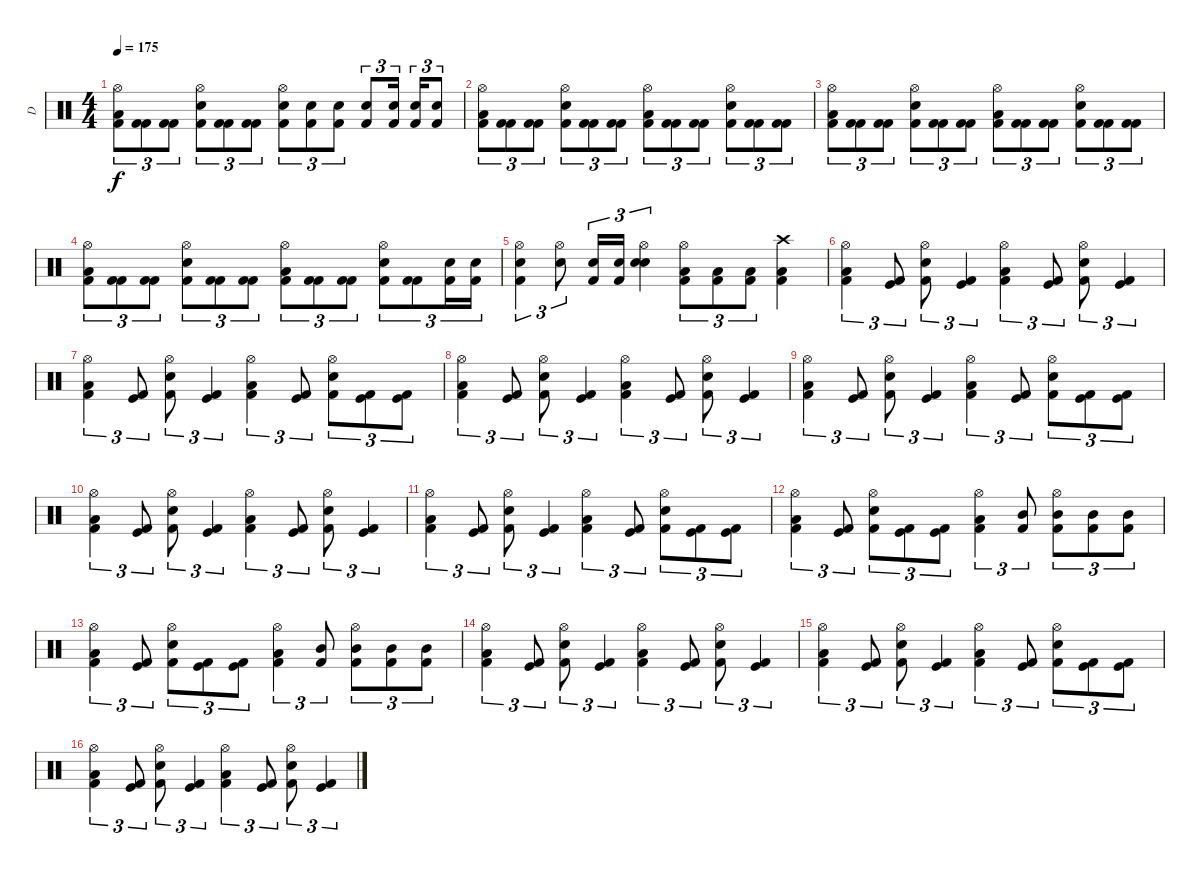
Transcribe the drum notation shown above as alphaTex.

\track ("D" "D") {instrument percussion}
\staff {score}
\articulation defaults
\ts (4 4)
\tempo 175
\clef neutral
\ks c
("Hi-Hat (open)" "Low Floor Tom (hit)" "Kick (hit) 2").8{tu (3 2) dy f} ("Kick (hit) 2" "Kick (hit) 2").8{tu (3 2)} ("Kick (hit) 2" "Kick (hit) 2").8{tu (3 2)} ("Hi-Hat (open)" "Electric Snare (hit)" "Kick (hit) 2").8{tu (3 2)} ("Kick (hit) 2" "Kick (hit) 2").8{tu (3 2)} ("Kick (hit) 2" "Kick (hit) 2").8{tu (3 2)} ("Hi-Hat (open)" "Snare (hit) 2" "Kick (hit) 2").8{tu (3 2)} ("Snare (hit) 2" "Kick (hit) 2").8{tu (3 2)} ("Snare (hit) 2" "Kick (hit) 2").8{tu (3 2)} ("Snare (hit) 2" "Kick (hit) 2").8{tu (3 2)} ("Snare (hit) 2" "Kick (hit) 2").16{tu (3 2)} ("Snare (hit) 2" "Kick (hit) 2").16{tu (3 2)} ("Snare (hit) 2" "Kick (hit) 2").8{tu (3 2)} |
("Hi-Hat (open)" "Low Floor Tom (hit)" "Kick (hit) 2").8{tu (3 2)} ("Kick (hit) 2" "Kick (hit) 2").8{tu (3 2)} ("Kick (hit) 2" "Kick (hit) 2").8{tu (3 2)} ("Hi-Hat (open)" "Electric Snare (hit)" "Kick (hit) 2").8{tu (3 2)} ("Kick (hit) 2" "Kick (hit) 2").8{tu (3 2)} ("Kick (hit) 2" "Kick (hit) 2").8{tu (3 2)} ("Hi-Hat (open)" "Low Floor Tom (hit)" "Kick (hit) 2").8{tu (3 2)} ("Kick (hit) 2" "Kick (hit) 2").8{tu (3 2)} ("Kick (hit) 2" "Kick (hit) 2").8{tu (3 2)} ("Hi-Hat (open)" "Snare (hit) 2" "Kick (hit) 2").8{tu (3 2)} ("Kick (hit) 2" "Kick (hit) 2").8{tu (3 2)} ("Kick (hit) 2" "Kick (hit) 2").8{tu (3 2)} |
("Hi-Hat (open)" "Low Floor Tom (hit)" "Kick (hit) 2").8{tu (3 2)} ("Kick (hit) 2" "Kick (hit) 2").8{tu (3 2)} ("Kick (hit) 2" "Kick (hit) 2").8{tu (3 2)} ("Hi-Hat (open)" "Electric Snare (hit)" "Kick (hit) 2").8{tu (3 2)} ("Kick (hit) 2" "Kick (hit) 2").8{tu (3 2)} ("Kick (hit) 2" "Kick (hit) 2").8{tu (3 2)} ("Hi-Hat (open)" "Low Floor Tom (hit)" "Kick (hit) 2").8{tu (3 2)} ("Kick (hit) 2" "Kick (hit) 2").8{tu (3 2)} ("Kick (hit) 2" "Kick (hit) 2").8{tu (3 2)} ("Hi-Hat (open)" "Snare (hit) 2" "Kick (hit) 2").8{tu (3 2)} ("Kick (hit) 2" "Kick (hit) 2").8{tu (3 2)} ("Kick (hit) 2" "Kick (hit) 2").8{tu (3 2)} |
("Hi-Hat (open)" "Low Floor Tom (hit)" "Kick (hit) 2").8{tu (3 2)} ("Kick (hit) 2" "Kick (hit) 2").8{tu (3 2)} ("Kick (hit) 2" "Kick (hit) 2").8{tu (3 2)} ("Hi-Hat (open)" "Electric Snare (hit)" "Kick (hit) 2").8{tu (3 2)} ("Kick (hit) 2" "Kick (hit) 2").8{tu (3 2)} ("Kick (hit) 2" "Kick (hit) 2").8{tu (3 2)} ("Hi-Hat (open)" "Low Floor Tom (hit)" "Kick (hit) 2").8{tu (3 2)} ("Kick (hit) 2" "Kick (hit) 2").8{tu (3 2)} ("Kick (hit) 2" "Kick (hit) 2").8{tu (3 2)} ("Hi-Hat (open)" "Snare (hit) 2" "Kick (hit) 2").8{tu (3 2)} ("Kick (hit) 2" "Kick (hit) 2").8{tu (3 2)} ("Electric Snare (hit)" "Kick (hit) 2").16{tu (3 2)} ("Electric Snare (hit)" "Kick (hit) 2").16{tu (3 2)} |
("Hi-Hat (open)" "Electric Snare (hit)" "Kick (hit) 2").4{tu (3 2)} ("Hi-Hat (open)" "Electric Snare (hit)").8{tu (3 2)} ("Electric Snare (hit)" "Kick (hit) 2").16{tu (3 2)} ("Electric Snare (hit)" "Kick (hit) 2").16{tu (3 2)} ("Hi-Hat (open)" "Electric Snare (hit)" "Snare (hit)").4{tu (3 2)} ("Hi-Hat (open)" "Low Tom (hit)" "Kick (hit) 2").8{tu (3 2)} ("Low Tom (hit)" "Kick (hit) 2").8{tu (3 2)} ("Low Tom (hit)" "Kick (hit) 2").8{tu (3 2)} ("Crash high (hit)" "Low Tom (hit)" "Kick (hit) 2").4 |
("Hi-Hat (open)" "Low Floor Tom (hit)" "Kick (hit) 2").4{tu (3 2)} ("Kick (hit)" "Kick (hit) 2").8{tu (3 2)} ("Hi-Hat (open)" "Electric Snare (hit)" "Kick (hit) 2").8{tu (3 2)} ("Kick (hit)" "Kick (hit) 2").4{tu (3 2)} ("Hi-Hat (open)" "Low Floor Tom (hit)" "Kick (hit) 2").4{tu (3 2)} ("Kick (hit)" "Kick (hit) 2").8{tu (3 2)} ("Hi-Hat (open)" "Electric Snare (hit)" "Kick (hit) 2").8{tu (3 2)} ("Kick (hit)" "Kick (hit) 2").4{tu (3 2)} |
("Hi-Hat (open)" "Low Floor Tom (hit)" "Kick (hit) 2").4{tu (3 2)} ("Kick (hit)" "Kick (hit) 2").8{tu (3 2)} ("Hi-Hat (open)" "Electric Snare (hit)" "Kick (hit) 2").8{tu (3 2)} ("Kick (hit)" "Kick (hit) 2").4{tu (3 2)} ("Hi-Hat (open)" "Low Floor Tom (hit)" "Kick (hit) 2").4{tu (3 2)} ("Kick (hit)" "Kick (hit) 2").8{tu (3 2)} ("Hi-Hat (open)" "Snare (hit) 2" "Kick (hit) 2").8{tu (3 2)} ("Kick (hit)" "Kick (hit) 2").8{tu (3 2)} ("Kick (hit)" "Kick (hit) 2").8{tu (3 2)} |
("Hi-Hat (open)" "Low Floor Tom (hit)" "Kick (hit) 2").4{tu (3 2)} ("Kick (hit)" "Kick (hit) 2").8{tu (3 2)} ("Hi-Hat (open)" "Electric Snare (hit)" "Kick (hit) 2").8{tu (3 2)} ("Kick (hit)" "Kick (hit) 2").4{tu (3 2)} ("Hi-Hat (open)" "Low Floor Tom (hit)" "Kick (hit) 2").4{tu (3 2)} ("Kick (hit)" "Kick (hit) 2").8{tu (3 2)} ("Hi-Hat (open)" "Electric Snare (hit)" "Kick (hit) 2").8{tu (3 2)} ("Kick (hit)" "Kick (hit) 2").4{tu (3 2)} |
("Hi-Hat (open)" "Low Floor Tom (hit)" "Kick (hit) 2").4{tu (3 2)} ("Kick (hit)" "Kick (hit) 2").8{tu (3 2)} ("Hi-Hat (open)" "Electric Snare (hit)" "Kick (hit) 2").8{tu (3 2)} ("Kick (hit)" "Kick (hit) 2").4{tu (3 2)} ("Hi-Hat (open)" "Low Floor Tom (hit)" "Kick (hit) 2").4{tu (3 2)} ("Kick (hit)" "Kick (hit) 2").8{tu (3 2)} ("Hi-Hat (open)" "Snare (hit) 2" "Kick (hit) 2").8{tu (3 2)} ("Kick (hit)" "Kick (hit) 2").8{tu (3 2)} ("Kick (hit)" "Kick (hit) 2").8{tu (3 2)} |
("Hi-Hat (open)" "Low Floor Tom (hit)" "Kick (hit) 2").4{tu (3 2)} ("Kick (hit)" "Kick (hit) 2").8{tu (3 2)} ("Hi-Hat (open)" "Electric Snare (hit)" "Kick (hit) 2").8{tu (3 2)} ("Kick (hit)" "Kick (hit) 2").4{tu (3 2)} ("Hi-Hat (open)" "Low Floor Tom (hit)" "Kick (hit) 2").4{tu (3 2)} ("Kick (hit)" "Kick (hit) 2").8{tu (3 2)} ("Hi-Hat (open)" "Electric Snare (hit)" "Kick (hit) 2").8{tu (3 2)} ("Kick (hit)" "Kick (hit) 2").4{tu (3 2)} |
("Hi-Hat (open)" "Low Floor Tom (hit)" "Kick (hit) 2").4{tu (3 2)} ("Kick (hit)" "Kick (hit) 2").8{tu (3 2)} ("Hi-Hat (open)" "Electric Snare (hit)" "Kick (hit) 2").8{tu (3 2)} ("Kick (hit)" "Kick (hit) 2").4{tu (3 2)} ("Hi-Hat (open)" "Low Floor Tom (hit)" "Kick (hit) 2").4{tu (3 2)} ("Kick (hit)" "Kick (hit) 2").8{tu (3 2)} ("Hi-Hat (open)" "Snare (hit) 2" "Kick (hit) 2").8{tu (3 2)} ("Kick (hit)" "Kick (hit) 2").8{tu (3 2)} ("Kick (hit)" "Kick (hit) 2").8{tu (3 2)} |
("Hi-Hat (open)" "Low Floor Tom (hit)" "Kick (hit) 2").4{tu (3 2)} ("Kick (hit)" "Kick (hit) 2").8{tu (3 2)} ("Hi-Hat (open)" "Electric Snare (hit)" "Kick (hit) 2").8{tu (3 2)} ("Kick (hit)" "Kick (hit) 2").8{tu (3 2)} ("Kick (hit)" "Kick (hit) 2").8{tu (3 2)} ("Hi-Hat (open)" "Low Floor Tom (hit)" "Kick (hit) 2").4{tu (3 2)} ("Mid Tom (hit)" "Kick (hit) 2").8{tu (3 2)} ("Hi-Hat (open)" "Mid Tom (hit)" "Kick (hit) 2").8{tu (3 2)} ("Mid Tom (hit)" "Kick (hit) 2").8{tu (3 2)} ("Mid Tom (hit)" "Kick (hit) 2").8{tu (3 2)} |
("Hi-Hat (open)" "Low Floor Tom (hit)" "Kick (hit) 2").4{tu (3 2)} ("Kick (hit)" "Kick (hit) 2").8{tu (3 2)} ("Hi-Hat (open)" "Electric Snare (hit)" "Kick (hit) 2").8{tu (3 2)} ("Kick (hit)" "Kick (hit) 2").8{tu (3 2)} ("Kick (hit)" "Kick (hit) 2").8{tu (3 2)} ("Hi-Hat (open)" "Low Floor Tom (hit)" "Kick (hit) 2").4{tu (3 2)} ("Mid Tom (hit)" "Kick (hit) 2").8{tu (3 2)} ("Hi-Hat (open)" "Mid Tom (hit)" "Kick (hit) 2").8{tu (3 2)} ("Mid Tom (hit)" "Kick (hit) 2").8{tu (3 2)} ("Mid Tom (hit)" "Kick (hit) 2").8{tu (3 2)} |
("Hi-Hat (open)" "Low Floor Tom (hit)" "Kick (hit) 2").4{tu (3 2)} ("Kick (hit)" "Kick (hit) 2").8{tu (3 2)} ("Hi-Hat (open)" "Electric Snare (hit)" "Kick (hit) 2").8{tu (3 2)} ("Kick (hit)" "Kick (hit) 2").4{tu (3 2)} ("Hi-Hat (open)" "Low Floor Tom (hit)" "Kick (hit) 2").4{tu (3 2)} ("Kick (hit)" "Kick (hit) 2").8{tu (3 2)} ("Hi-Hat (open)" "Electric Snare (hit)" "Kick (hit) 2").8{tu (3 2)} ("Kick (hit)" "Kick (hit) 2").4{tu (3 2)} |
("Hi-Hat (open)" "Low Floor Tom (hit)" "Kick (hit) 2").4{tu (3 2)} ("Kick (hit)" "Kick (hit) 2").8{tu (3 2)} ("Hi-Hat (open)" "Electric Snare (hit)" "Kick (hit) 2").8{tu (3 2)} ("Kick (hit)" "Kick (hit) 2").4{tu (3 2)} ("Hi-Hat (open)" "Low Floor Tom (hit)" "Kick (hit) 2").4{tu (3 2)} ("Kick (hit)" "Kick (hit) 2").8{tu (3 2)} ("Hi-Hat (open)" "Snare (hit) 2" "Kick (hit) 2").8{tu (3 2)} ("Kick (hit)" "Kick (hit) 2").8{tu (3 2)} ("Kick (hit)" "Kick (hit) 2").8{tu (3 2)} |
("Hi-Hat (open)" "Low Floor Tom (hit)" "Kick (hit) 2").4{tu (3 2)} ("Kick (hit)" "Kick (hit) 2").8{tu (3 2)} ("Hi-Hat (open)" "Electric Snare (hit)" "Kick (hit) 2").8{tu (3 2)} ("Kick (hit)" "Kick (hit) 2").4{tu (3 2)} ("Hi-Hat (open)" "Low Floor Tom (hit)" "Kick (hit) 2").4{tu (3 2)} ("Kick (hit)" "Kick (hit) 2").8{tu (3 2)} ("Hi-Hat (open)" "Electric Snare (hit)" "Kick (hit) 2").8{tu (3 2)} ("Kick (hit)" "Kick (hit) 2").4{tu (3 2)}
